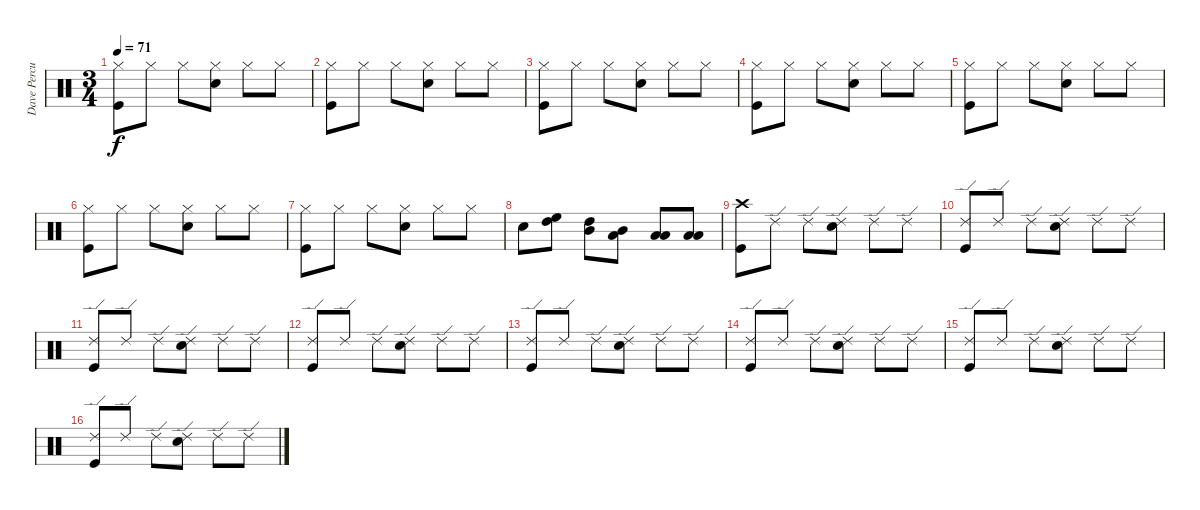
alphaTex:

\track ("Dave Percussions" "Dave Percu") {instrument percussion}
\staff {score}
\articulation defaults
\ts (3 4)
\tempo 71
\clef neutral
\ks c
("Hi-Hat (closed)" "Kick (hit)").8{dy f} "Hi-Hat (closed)".8 "Hi-Hat (closed)".8 ("Hi-Hat (closed)" "Snare (hit) 2").8 "Hi-Hat (closed)".8 "Hi-Hat (closed)".8 |
("Hi-Hat (closed)" "Kick (hit)").8 "Hi-Hat (closed)".8 "Hi-Hat (closed)".8 ("Hi-Hat (closed)" "Snare (hit) 2").8 "Hi-Hat (closed)".8 "Hi-Hat (closed)".8 |
("Hi-Hat (closed)" "Kick (hit)").8 "Hi-Hat (closed)".8 "Hi-Hat (closed)".8 ("Hi-Hat (closed)" "Snare (hit) 2").8 "Hi-Hat (closed)".8 "Hi-Hat (closed)".8 |
("Hi-Hat (closed)" "Kick (hit)").8 "Hi-Hat (closed)".8 "Hi-Hat (closed)".8 ("Hi-Hat (closed)" "Snare (hit) 2").8 "Hi-Hat (closed)".8 "Hi-Hat (closed)".8 |
("Hi-Hat (closed)" "Kick (hit)").8 "Hi-Hat (closed)".8 "Hi-Hat (closed)".8 ("Hi-Hat (closed)" "Snare (hit) 2").8 "Hi-Hat (closed)".8 "Hi-Hat (closed)".8 |
("Hi-Hat (closed)" "Kick (hit)").8 "Hi-Hat (closed)".8 "Hi-Hat (closed)".8 ("Hi-Hat (closed)" "Snare (hit) 2").8 "Hi-Hat (closed)".8 "Hi-Hat (closed)".8 |
("Hi-Hat (closed)" "Kick (hit)").8 "Hi-Hat (closed)".8 "Hi-Hat (closed)".8 ("Hi-Hat (closed)" "Snare (hit) 2").8 "Hi-Hat (closed)".8 "Hi-Hat (closed)".8 |
"Snare (hit) 2".8 ("High Tom (hit)" "High Floor Tom (hit)").8 ("Mid Tom (hit)" "High Tom (hit)").8 ("Low Tom (hit)" "Mid Tom (hit)").8 ("Low Floor Tom (hit)" "Low Tom (hit)").8 ("Low Floor Tom (hit)" "Low Tom (hit)").8 |
("Crash high (hit)" "Kick (hit)").8 "Ride (edge) 2".8 "Ride (edge) 2".8 ("Ride (edge) 2" "Snare (hit) 2").8 "Ride (edge) 2".8 "Ride (edge) 2".8 |
("Ride (edge) 2" "Kick (hit)").8 "Ride (edge) 2".8 "Ride (edge) 2".8 ("Ride (edge) 2" "Snare (hit) 2").8 "Ride (edge) 2".8 "Ride (edge) 2".8 |
("Ride (edge) 2" "Kick (hit)").8 "Ride (edge) 2".8 "Ride (edge) 2".8 ("Ride (edge) 2" "Snare (hit) 2").8 "Ride (edge) 2".8 "Ride (edge) 2".8 |
("Ride (edge) 2" "Kick (hit)").8 "Ride (edge) 2".8 "Ride (edge) 2".8 ("Ride (edge) 2" "Snare (hit) 2").8 "Ride (edge) 2".8 "Ride (edge) 2".8 |
("Ride (edge) 2" "Kick (hit)").8 "Ride (edge) 2".8 "Ride (edge) 2".8 ("Ride (edge) 2" "Snare (hit) 2").8 "Ride (edge) 2".8 "Ride (edge) 2".8 |
("Ride (edge) 2" "Kick (hit)").8 "Ride (edge) 2".8 "Ride (edge) 2".8 ("Ride (edge) 2" "Snare (hit) 2").8 "Ride (edge) 2".8 "Ride (edge) 2".8 |
("Ride (edge) 2" "Kick (hit)").8 "Ride (edge) 2".8 "Ride (edge) 2".8 ("Ride (edge) 2" "Snare (hit) 2").8 "Ride (edge) 2".8 "Ride (edge) 2".8 |
("Ride (edge) 2" "Kick (hit)").8 "Ride (edge) 2".8 "Ride (edge) 2".8 ("Ride (edge) 2" "Snare (hit) 2").8 "Ride (edge) 2".8 "Ride (edge) 2".8
